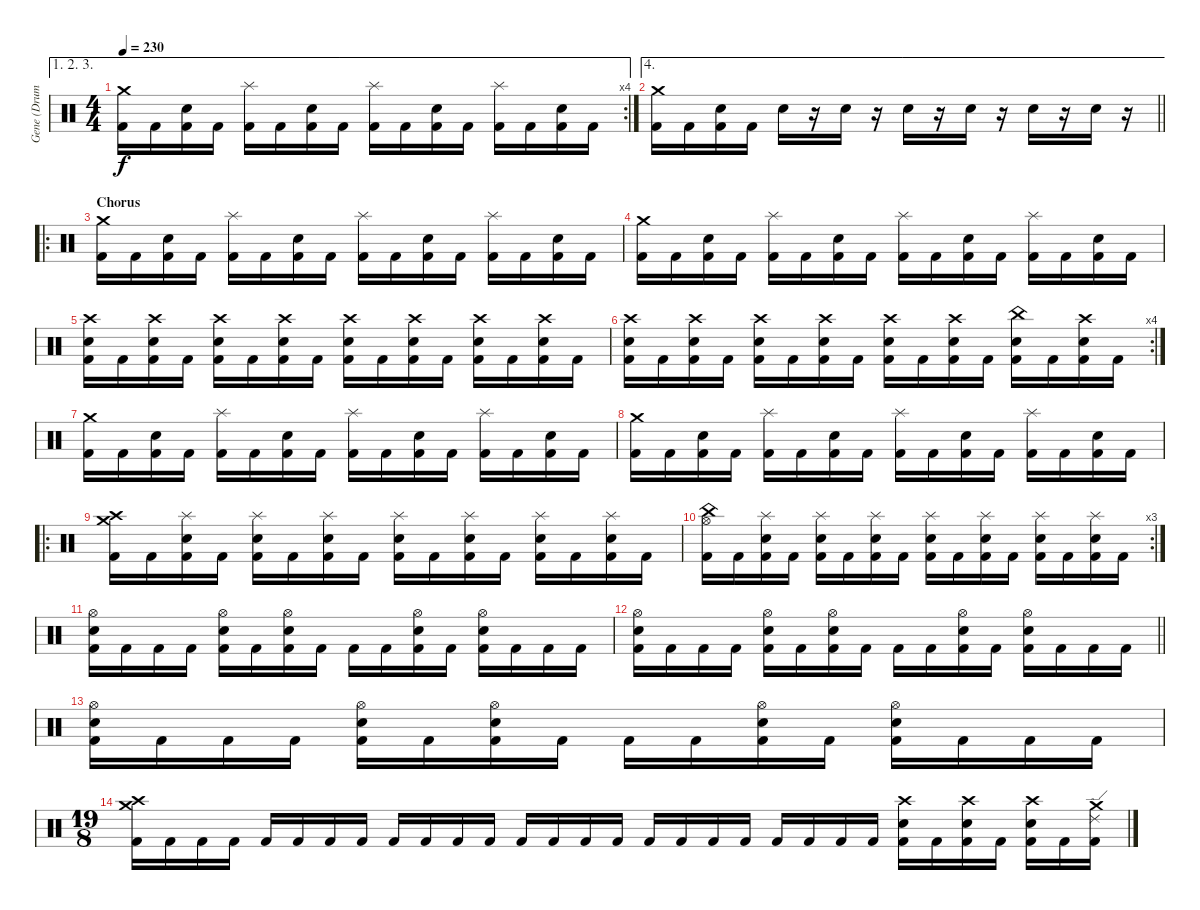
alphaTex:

\track ("Gene (Drums)" "Gene (Drum") {instrument percussion}
\staff {score}
\articulation defaults
\ae (1 2 3)
\rc 4
\ts (4 4)
\tempo 230
\clef neutral
\ks c
("Crash medium (hit)" "Kick (hit) 2").16{dy f} "Kick (hit) 2".16 ("Electric Snare (hit)" "Kick (hit) 2").16 "Kick (hit) 2".16 ("Splash (hit)" "Kick (hit) 2").16 "Kick (hit) 2".16 ("Electric Snare (hit)" "Kick (hit) 2").16 "Kick (hit) 2".16 ("Splash (hit)" "Kick (hit) 2").16 "Kick (hit) 2".16 ("Electric Snare (hit)" "Kick (hit) 2").16 "Kick (hit) 2".16 ("Splash (hit)" "Kick (hit) 2").16 "Kick (hit) 2".16 ("Electric Snare (hit)" "Kick (hit) 2").16 "Kick (hit) 2".16 |
\ae 4
\barLineRight lightlight
("Crash medium (hit)" "Kick (hit) 2").16 "Kick (hit) 2".16 ("Electric Snare (hit)" "Kick (hit) 2").16 "Kick (hit) 2".16 "Electric Snare (hit)".16 r.16 "Electric Snare (hit)".16 r.16 "Electric Snare (hit)".16 r.16 "Electric Snare (hit)".16 r.16 "Electric Snare (hit)".16 r.16 "Electric Snare (hit)".16 r.16 |
\ro
\section ("" "Chorus")
("Crash medium (hit)" "Kick (hit) 2").16 "Kick (hit) 2".16 ("Electric Snare (hit)" "Kick (hit) 2").16 "Kick (hit) 2".16 ("Splash (hit)" "Kick (hit) 2").16 "Kick (hit) 2".16 ("Electric Snare (hit)" "Kick (hit) 2").16 "Kick (hit) 2".16 ("Splash (hit)" "Kick (hit) 2").16 "Kick (hit) 2".16 ("Electric Snare (hit)" "Kick (hit) 2").16 "Kick (hit) 2".16 ("Splash (hit)" "Kick (hit) 2").16 "Kick (hit) 2".16 ("Electric Snare (hit)" "Kick (hit) 2").16 "Kick (hit) 2".16 |
("Crash medium (hit)" "Kick (hit) 2").16 "Kick (hit) 2".16 ("Electric Snare (hit)" "Kick (hit) 2").16 "Kick (hit) 2".16 ("Splash (hit)" "Kick (hit) 2").16 "Kick (hit) 2".16 ("Electric Snare (hit)" "Kick (hit) 2").16 "Kick (hit) 2".16 ("Splash (hit)" "Kick (hit) 2").16 "Kick (hit) 2".16 ("Electric Snare (hit)" "Kick (hit) 2").16 "Kick (hit) 2".16 ("Splash (hit)" "Kick (hit) 2").16 "Kick (hit) 2".16 ("Electric Snare (hit)" "Kick (hit) 2").16 "Kick (hit) 2".16 |
("Crash high (hit)" "Electric Snare (hit)" "Kick (hit) 2").16 "Kick (hit) 2".16 ("Crash high (hit)" "Electric Snare (hit)" "Kick (hit) 2").16 "Kick (hit) 2".16 ("Crash high (hit)" "Electric Snare (hit)" "Kick (hit) 2").16 "Kick (hit) 2".16 ("Crash high (hit)" "Electric Snare (hit)" "Kick (hit) 2").16 "Kick (hit) 2".16 ("Crash high (hit)" "Electric Snare (hit)" "Kick (hit) 2").16 "Kick (hit) 2".16 ("Crash high (hit)" "Electric Snare (hit)" "Kick (hit) 2").16 "Kick (hit) 2".16 ("Crash high (hit)" "Electric Snare (hit)" "Kick (hit) 2").16 "Kick (hit) 2".16 ("Crash high (hit)" "Electric Snare (hit)" "Kick (hit) 2").16 "Kick (hit) 2".16 |
\rc 4
("Crash high (hit)" "Electric Snare (hit)" "Kick (hit) 2").16 "Kick (hit) 2".16 ("Crash high (hit)" "Electric Snare (hit)" "Kick (hit) 2").16 "Kick (hit) 2".16 ("Crash high (hit)" "Electric Snare (hit)" "Kick (hit) 2").16 "Kick (hit) 2".16 ("Crash high (hit)" "Electric Snare (hit)" "Kick (hit) 2").16 "Kick (hit) 2".16 ("Crash high (hit)" "Electric Snare (hit)" "Kick (hit) 2").16 "Kick (hit) 2".16 ("Crash high (hit)" "Electric Snare (hit)" "Kick (hit) 2").16 "Kick (hit) 2".16 ("China (hit)" "Electric Snare (hit)" "Kick (hit) 2").16 "Kick (hit) 2".16 ("Crash high (hit)" "Electric Snare (hit)" "Kick (hit) 2").16 "Kick (hit) 2".16 |
("Crash medium (hit)" "Kick (hit) 2").16 "Kick (hit) 2".16 ("Electric Snare (hit)" "Kick (hit) 2").16 "Kick (hit) 2".16 ("Splash (hit)" "Kick (hit) 2").16 "Kick (hit) 2".16 ("Electric Snare (hit)" "Kick (hit) 2").16 "Kick (hit) 2".16 ("Splash (hit)" "Kick (hit) 2").16 "Kick (hit) 2".16 ("Electric Snare (hit)" "Kick (hit) 2").16 "Kick (hit) 2".16 ("Splash (hit)" "Kick (hit) 2").16 "Kick (hit) 2".16 ("Electric Snare (hit)" "Kick (hit) 2").16 "Kick (hit) 2".16 |
("Crash medium (hit)" "Kick (hit) 2").16 "Kick (hit) 2".16 ("Electric Snare (hit)" "Kick (hit) 2").16 "Kick (hit) 2".16 ("Splash (hit)" "Kick (hit) 2").16 "Kick (hit) 2".16 ("Electric Snare (hit)" "Kick (hit) 2").16 "Kick (hit) 2".16 ("Splash (hit)" "Kick (hit) 2").16 "Kick (hit) 2".16 ("Electric Snare (hit)" "Kick (hit) 2").16 "Kick (hit) 2".16 ("Splash (hit)" "Kick (hit) 2").16 "Kick (hit) 2".16 ("Electric Snare (hit)" "Kick (hit) 2").16 "Kick (hit) 2".16 |
\ro
("Crash medium (hit)" "Crash high (hit)" "Kick (hit) 2").16 "Kick (hit) 2".16 ("Splash (hit)" "Electric Snare (hit)" "Kick (hit) 2").16 "Kick (hit) 2".16 ("Splash (hit)" "Electric Snare (hit)" "Kick (hit) 2").16 "Kick (hit) 2".16 ("Splash (hit)" "Electric Snare (hit)" "Kick (hit) 2").16 "Kick (hit) 2".16 ("Splash (hit)" "Electric Snare (hit)" "Kick (hit) 2").16 "Kick (hit) 2".16 ("Splash (hit)" "Electric Snare (hit)" "Kick (hit) 2").16 "Kick (hit) 2".16 ("Splash (hit)" "Electric Snare (hit)" "Kick (hit) 2").16 "Kick (hit) 2".16 ("Splash (hit)" "Electric Snare (hit)" "Kick (hit) 2").16 "Kick (hit) 2".16 |
\rc 3
("Hi-Hat (open)" "China (hit)" "Kick (hit) 2").16 "Kick (hit) 2".16 ("Splash (hit)" "Electric Snare (hit)" "Kick (hit) 2").16 "Kick (hit) 2".16 ("Splash (hit)" "Electric Snare (hit)" "Kick (hit) 2").16 "Kick (hit) 2".16 ("Splash (hit)" "Electric Snare (hit)" "Kick (hit) 2").16 "Kick (hit) 2".16 ("Splash (hit)" "Electric Snare (hit)" "Kick (hit) 2").16 "Kick (hit) 2".16 ("Splash (hit)" "Electric Snare (hit)" "Kick (hit) 2").16 "Kick (hit) 2".16 ("Splash (hit)" "Electric Snare (hit)" "Kick (hit) 2").16 "Kick (hit) 2".16 ("Splash (hit)" "Electric Snare (hit)" "Kick (hit) 2").16 "Kick (hit) 2".16 |
("Hi-Hat (open)" "Electric Snare (hit)" "Kick (hit) 2").16 "Kick (hit) 2".16 "Kick (hit) 2".16 "Kick (hit) 2".16 ("Hi-Hat (open)" "Electric Snare (hit)" "Kick (hit) 2").16 "Kick (hit) 2".16 ("Hi-Hat (open)" "Electric Snare (hit)" "Kick (hit) 2").16 "Kick (hit) 2".16 "Kick (hit) 2".16 "Kick (hit) 2".16 ("Hi-Hat (open)" "Electric Snare (hit)" "Kick (hit) 2").16 "Kick (hit) 2".16 ("Hi-Hat (open)" "Electric Snare (hit)" "Kick (hit) 2").16 "Kick (hit) 2".16 "Kick (hit) 2".16 "Kick (hit) 2".16 |
\barLineRight lightlight
("Hi-Hat (open)" "Electric Snare (hit)" "Kick (hit) 2").16 "Kick (hit) 2".16 "Kick (hit) 2".16 "Kick (hit) 2".16 ("Hi-Hat (open)" "Electric Snare (hit)" "Kick (hit) 2").16 "Kick (hit) 2".16 ("Hi-Hat (open)" "Electric Snare (hit)" "Kick (hit) 2").16 "Kick (hit) 2".16 "Kick (hit) 2".16 "Kick (hit) 2".16 ("Hi-Hat (open)" "Electric Snare (hit)" "Kick (hit) 2").16 "Kick (hit) 2".16 ("Hi-Hat (open)" "Electric Snare (hit)" "Kick (hit) 2").16 "Kick (hit) 2".16 "Kick (hit) 2".16 "Kick (hit) 2".16 |
("Hi-Hat (open)" "Electric Snare (hit)" "Kick (hit) 2").16 "Kick (hit) 2".16 "Kick (hit) 2".16 "Kick (hit) 2".16 ("Hi-Hat (open)" "Electric Snare (hit)" "Kick (hit) 2").16 "Kick (hit) 2".16 ("Hi-Hat (open)" "Electric Snare (hit)" "Kick (hit) 2").16 "Kick (hit) 2".16 "Kick (hit) 2".16 "Kick (hit) 2".16 ("Hi-Hat (open)" "Electric Snare (hit)" "Kick (hit) 2").16 "Kick (hit) 2".16 ("Hi-Hat (open)" "Electric Snare (hit)" "Kick (hit) 2").16 "Kick (hit) 2".16 "Kick (hit) 2".16 "Kick (hit) 2".16 |
\ts (19 8)
("Crash high (hit)" "Crash medium (hit)" "Kick (hit) 2").16 "Kick (hit) 2".16 "Kick (hit) 2".16 "Kick (hit) 2".16 "Kick (hit) 2".16 "Kick (hit) 2".16 "Kick (hit) 2".16 "Kick (hit) 2".16 "Kick (hit) 2".16 "Kick (hit) 2".16 "Kick (hit) 2".16 "Kick (hit) 2".16 "Kick (hit) 2".16 "Kick (hit) 2".16 "Kick (hit) 2".16 "Kick (hit) 2".16 "Kick (hit) 2".16 "Kick (hit) 2".16 "Kick (hit) 2".16 "Kick (hit) 2".16 "Kick (hit) 2".16 "Kick (hit) 2".16 "Kick (hit) 2".16 "Kick (hit) 2".16 ("Electric Snare (hit)" "Crash high (hit)" "Kick (hit) 2").16 "Kick (hit) 2".16 ("Electric Snare (hit)" "Crash high (hit)" "Kick (hit) 2").16 "Kick (hit) 2".16 ("Electric Snare (hit)" "Crash high (hit)" "Kick (hit) 2").16 "Kick (hit) 2".16 ("Ride (edge) 2" "Crash medium (hit)" "Kick (hit) 2").16
